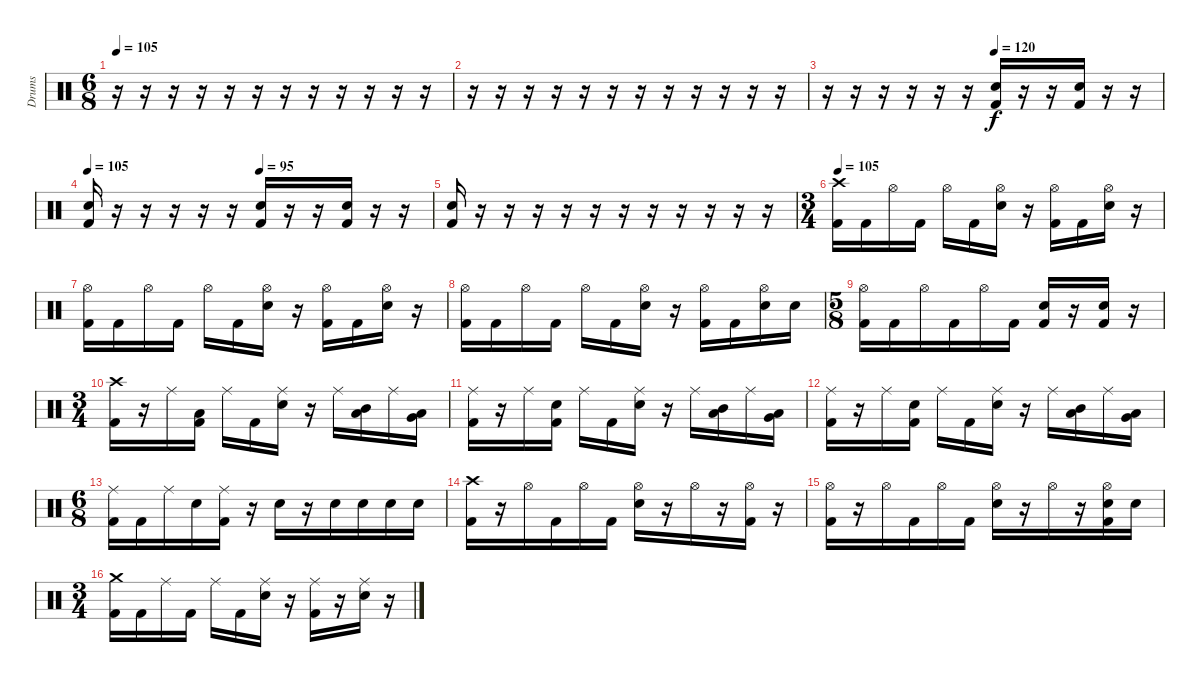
\track ("Drums" "Drums") {instrument percussion}
\staff {score}
\articulation defaults
\ts (6 8)
\tempo 105
\clef neutral
\ks c
r.16{dy f} r.16 r.16 r.16 r.16 r.16 r.16 r.16 r.16 r.16 r.16 r.16 |
r.16 r.16 r.16 r.16 r.16 r.16 r.16 r.16 r.16 r.16 r.16 r.16 |
\tempo (120 0.5)
r.16 r.16 r.16 r.16 r.16 r.16 ("Electric Snare (hit)" "Kick (hit) 2").16 r.16 r.16 ("Electric Snare (hit)" "Kick (hit) 2").16 r.16 r.16 |
\tempo 105
\tempo (95 0.5)
("Electric Snare (hit)" "Kick (hit) 2").16 r.16 r.16 r.16 r.16 r.16 ("Electric Snare (hit)" "Kick (hit) 2").16 r.16 r.16 ("Electric Snare (hit)" "Kick (hit) 2").16 r.16 r.16 |
("Electric Snare (hit)" "Kick (hit) 2").16 r.16 r.16 r.16 r.16 r.16 r.16 r.16 r.16 r.16 r.16 r.16 |
\ts (3 4)
\tempo 105
("Crash high (hit)" "Kick (hit) 2").16 "Kick (hit) 2".16 "Hi-Hat (open)".16 "Kick (hit) 2".16 "Hi-Hat (open)".16 "Kick (hit) 2".16 ("Hi-Hat (open)" "Electric Snare (hit)").16 r.16 ("Hi-Hat (open)" "Kick (hit) 2").16 "Kick (hit) 2".16 ("Hi-Hat (open)" "Electric Snare (hit)").16 r.16 |
("Hi-Hat (open)" "Kick (hit) 2").16 "Kick (hit) 2".16 "Hi-Hat (open)".16 "Kick (hit) 2".16 "Hi-Hat (open)".16 "Kick (hit) 2".16 ("Hi-Hat (open)" "Electric Snare (hit)").16 r.16 ("Hi-Hat (open)" "Kick (hit) 2").16 "Kick (hit) 2".16 ("Hi-Hat (open)" "Electric Snare (hit)").16 r.16 |
("Hi-Hat (open)" "Kick (hit) 2").16 "Kick (hit) 2".16 "Hi-Hat (open)".16 "Kick (hit) 2".16 "Hi-Hat (open)".16 "Kick (hit) 2".16 ("Hi-Hat (open)" "Electric Snare (hit)").16 r.16 ("Hi-Hat (open)" "Kick (hit) 2").16 "Kick (hit) 2".16 ("Hi-Hat (open)" "Electric Snare (hit)").16 "Electric Snare (hit)".16 |
\ts (5 8)
("Hi-Hat (open)" "Kick (hit) 2").16 "Kick (hit) 2".16 "Hi-Hat (open)".16 "Kick (hit) 2".16 "Hi-Hat (open)".16 "Kick (hit) 2".16 ("Electric Snare (hit)" "Kick (hit) 2").16 r.16 ("Electric Snare (hit)" "Kick (hit) 2").16 r.16 |
\ts (3 4)
("Crash high (hit)" "Kick (hit) 2").16 r.16 "Ride (middle)".16 ("Low Tom (hit)" "Kick (hit) 2").16 "Ride (middle)".16 "Kick (hit) 2".16 ("Ride (middle)" "Electric Snare (hit)").16 r.16 "Ride (middle)".16 ("Mid Tom (hit)" "Low Tom (hit)").16 "Ride (middle)".16 ("Low Tom (hit)" "Very Low Tom (hit)").16 |
("Ride (middle)" "Kick (hit) 2").16 r.16 "Ride (middle)".16 ("Electric Snare (hit)" "Kick (hit) 2").16 "Ride (middle)".16 "Kick (hit) 2".16 ("Ride (middle)" "Electric Snare (hit)").16 r.16 "Ride (middle)".16 ("Mid Tom (hit)" "Low Tom (hit)").16 "Ride (middle)".16 ("Low Tom (hit)" "Very Low Tom (hit)").16 |
("Ride (middle)" "Kick (hit) 2").16 r.16 "Ride (middle)".16 ("Electric Snare (hit)" "Kick (hit) 2").16 "Ride (middle)".16 "Kick (hit) 2".16 ("Ride (middle)" "Electric Snare (hit)").16 r.16 "Ride (middle)".16 ("Mid Tom (hit)" "Low Tom (hit)").16 "Ride (middle)".16 ("Low Tom (hit)" "Very Low Tom (hit)").16 |
\ts (6 8)
("Ride (middle)" "Kick (hit) 2").16 "Kick (hit) 2".16 "Ride (middle)".16 "Electric Snare (hit)".16 ("Ride (middle)" "Kick (hit) 2").16 r.16 "Electric Snare (hit)".16 r.16 "Electric Snare (hit)".16 "Electric Snare (hit)".16 "Electric Snare (hit)".16 "Electric Snare (hit)".16 |
("Crash high (hit)" "Kick (hit) 2").16 r.16 "Hi-Hat (open)".16 "Kick (hit) 2".16 "Hi-Hat (open)".16 "Kick (hit) 2".16 ("Hi-Hat (open)" "Electric Snare (hit)").16 r.16 "Hi-Hat (open)".16 r.16 ("Hi-Hat (open)" "Kick (hit) 2").16 r.16 |
("Hi-Hat (open)" "Kick (hit) 2").16 r.16 "Hi-Hat (open)".16 "Kick (hit) 2".16 "Hi-Hat (open)".16 "Kick (hit) 2".16 ("Hi-Hat (open)" "Electric Snare (hit)").16 r.16 "Hi-Hat (open)".16 r.16 ("Hi-Hat (open)" "Electric Snare (hit)" "Kick (hit) 2").16 "Electric Snare (hit)".16 |
\ts (3 4)
("Crash medium (hit)" "Kick (hit) 2").16 "Kick (hit) 2".16 "Ride (middle)".16 "Kick (hit) 2".16 "Ride (middle)".16 "Kick (hit) 2".16 ("Ride (middle)" "Electric Snare (hit)").16 r.16 ("Ride (middle)" "Kick (hit) 2").16 r.16 ("Ride (middle)" "Electric Snare (hit)").16 r.16
